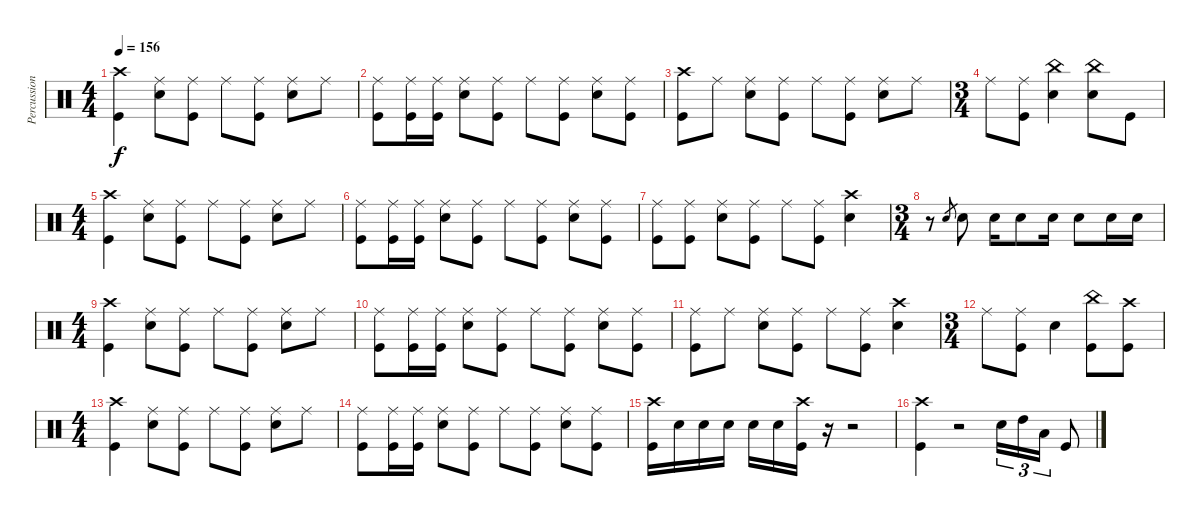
\track ("Percussion" "Percussion") {instrument percussion}
\staff {score}
\articulation defaults
\ts (4 4)
\tempo 156
\clef neutral
\ks c
("Crash high (hit)" "Kick (hit)").4{dy f} ("Ride (middle)" "Electric Snare (hit)").8 ("Ride (middle)" "Kick (hit)").8 "Ride (middle)".8 ("Ride (middle)" "Kick (hit)").8 ("Ride (middle)" "Electric Snare (hit)").8 "Ride (middle)".8 |
("Ride (middle)" "Kick (hit)").8 ("Ride (middle)" "Kick (hit)").16 ("Ride (middle)" "Kick (hit)").16 ("Ride (middle)" "Electric Snare (hit)").8 ("Ride (middle)" "Kick (hit)").8 "Ride (middle)".8 ("Ride (middle)" "Kick (hit)").8 ("Ride (middle)" "Electric Snare (hit)").8 ("Ride (middle)" "Kick (hit)").8 |
("Crash high (hit)" "Kick (hit)").8 "Ride (middle)".8 ("Ride (middle)" "Electric Snare (hit)").8 ("Ride (middle)" "Kick (hit)").8 "Ride (middle)".8 ("Ride (middle)" "Kick (hit)").8 ("Ride (middle)" "Electric Snare (hit)").8 "Ride (middle)".8 |
\ts (3 4)
"Ride (middle)".8 ("Ride (middle)" "Kick (hit)").8 ("China (hit)" "Electric Snare (hit)").4 ("China (hit)" "Electric Snare (hit)").8 "Kick (hit)".8 |
\ts (4 4)
("Crash high (hit)" "Kick (hit)").4 ("Ride (middle)" "Electric Snare (hit)").8 ("Ride (middle)" "Kick (hit)").8 "Ride (middle)".8 ("Ride (middle)" "Kick (hit)").8 ("Ride (middle)" "Electric Snare (hit)").8 "Ride (middle)".8 |
("Ride (middle)" "Kick (hit)").8 ("Ride (middle)" "Kick (hit)").16 ("Ride (middle)" "Kick (hit)").16 ("Ride (middle)" "Electric Snare (hit)").8 ("Ride (middle)" "Kick (hit)").8 "Ride (middle)".8 ("Ride (middle)" "Kick (hit)").8 ("Ride (middle)" "Electric Snare (hit)").8 ("Ride (middle)" "Kick (hit)").8 |
("Ride (middle)" "Kick (hit)").8 ("Ride (middle)" "Kick (hit)").8 ("Ride (middle)" "Electric Snare (hit)").8 ("Ride (middle)" "Kick (hit)").8 "Ride (middle)".8 ("Ride (middle)" "Kick (hit)").8 ("Crash high (hit)" "Electric Snare (hit)").4 |
\ts (3 4)
r.8 "Snare (hit) 2".8{gr} "Electric Snare (hit)".8 "Electric Snare (hit)".16 "Electric Snare (hit)".8 "Electric Snare (hit)".16 "Electric Snare (hit)".8 "Electric Snare (hit)".16 "Electric Snare (hit)".16 |
\ts (4 4)
("Crash high (hit)" "Kick (hit)").4 ("Ride (middle)" "Electric Snare (hit)").8 ("Ride (middle)" "Kick (hit)").8 "Ride (middle)".8 ("Ride (middle)" "Kick (hit)").8 ("Ride (middle)" "Electric Snare (hit)").8 "Ride (middle)".8 |
("Ride (middle)" "Kick (hit)").8 ("Ride (middle)" "Kick (hit)").16 ("Ride (middle)" "Kick (hit)").16 ("Ride (middle)" "Electric Snare (hit)").8 ("Ride (middle)" "Kick (hit)").8 "Ride (middle)".8 ("Ride (middle)" "Kick (hit)").8 ("Ride (middle)" "Electric Snare (hit)").8 ("Ride (middle)" "Kick (hit)").8 |
("Ride (middle)" "Kick (hit)").8 "Ride (middle)".8 ("Ride (middle)" "Electric Snare (hit)").8 ("Ride (middle)" "Kick (hit)").8 "Ride (middle)".8 ("Ride (middle)" "Kick (hit)").8 ("Crash high (hit)" "Electric Snare (hit)").4 |
\ts (3 4)
"Ride (middle)".8 ("Ride (middle)" "Kick (hit)").8 "Electric Snare (hit)".4 ("China (hit)" "Kick (hit)").8 ("Crash high (hit)" "Kick (hit)").8 |
\ts (4 4)
("Crash high (hit)" "Kick (hit)").4 ("Ride (middle)" "Electric Snare (hit)").8 ("Ride (middle)" "Kick (hit)").8 "Ride (middle)".8 ("Ride (middle)" "Kick (hit)").8 ("Ride (middle)" "Electric Snare (hit)").8 "Ride (middle)".8 |
("Ride (middle)" "Kick (hit)").8 ("Ride (middle)" "Kick (hit)").16 ("Ride (middle)" "Kick (hit)").16 ("Ride (middle)" "Electric Snare (hit)").8 ("Ride (middle)" "Kick (hit)").8 "Ride (middle)".8 ("Ride (middle)" "Kick (hit)").8 ("Ride (middle)" "Electric Snare (hit)").8 ("Ride (middle)" "Kick (hit)").8 |
("Crash high (hit)" "Kick (hit)").16 "Electric Snare (hit)".16 "Electric Snare (hit)".16 "Electric Snare (hit)".16 "Electric Snare (hit)".16 "Electric Snare (hit)".16 ("Crash high (hit)" "Kick (hit)").16 r.16 r.2 |
("Crash high (hit)" "Kick (hit)").4 r.2 "Electric Snare (hit)".16{tu (3 2)} "High Tom (hit)".16{tu (3 2)} "Low Tom (hit)".16{tu (3 2)} "Kick (hit)".8
